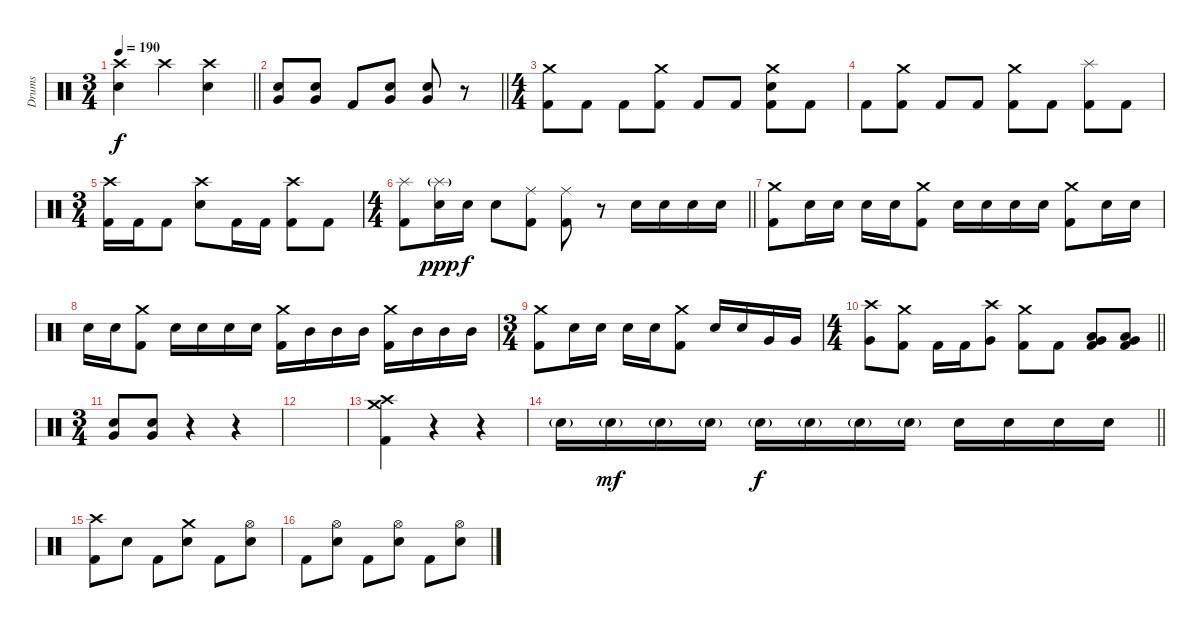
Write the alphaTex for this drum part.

\track ("Drums" "Drums") {instrument percussion}
\staff {score}
\articulation defaults
\ts (3 4)
\tempo 190
\clef neutral
\barLineRight lightlight
\ks c
("Crash high (hit)" "Electric Snare (hit)").4{dy f} "Crash high (hit)".4 ("Crash high (hit)" "Electric Snare (hit)").4 |
\barLineRight lightlight
("Electric Snare (hit)" "Very Low Tom (hit)").8 ("Electric Snare (hit)" "Very Low Tom (hit)").8 "Kick (hit) 2".8 ("Electric Snare (hit)" "Very Low Tom (hit)").8 ("Electric Snare (hit)" "Very Low Tom (hit)").8 r.8 |
\ts (4 4)
("Crash medium (hit)" "Kick (hit) 2").8 "Kick (hit) 2".8 "Kick (hit) 2".8 ("Crash medium (hit)" "Kick (hit) 2").8 "Kick (hit) 2".8 "Kick (hit) 2".8 ("Crash medium (hit)" "Electric Snare (hit)" "Kick (hit) 2").8 "Kick (hit) 2".8 |
"Kick (hit) 2".8 ("Crash medium (hit)" "Kick (hit) 2").8 "Kick (hit) 2".8 "Kick (hit) 2".8 ("Crash medium (hit)" "Kick (hit) 2").8 "Kick (hit) 2".8 ("Splash (hit)" "Kick (hit) 2").8 "Kick (hit) 2".8 |
\ts (3 4)
("Crash high (hit)" "Kick (hit) 2").16 "Kick (hit) 2".16 "Kick (hit) 2".8 ("Crash high (hit)" "Electric Snare (hit)").8 "Kick (hit) 2".16 "Kick (hit) 2".16 ("Crash high (hit)" "Kick (hit) 2").8 "Kick (hit) 2".8 |
\ts (4 4)
\barLineRight lightlight
("Splash (hit)" "Kick (hit) 2").8 ("Splash (hit)"{g} "Electric Snare (hit)").16{dy ppp} "Electric Snare (hit)".16{dy f} "Electric Snare (hit)".8 ("Ride (middle)" "Kick (hit) 2").8 ("Ride (middle)" "Kick (hit) 2").8 r.8 "Electric Snare (hit)".16 "Electric Snare (hit)".16 "Electric Snare (hit)".16 "Electric Snare (hit)".16 |
("Crash medium (hit)" "Kick (hit) 2").8 "Electric Snare (hit)".16 "Electric Snare (hit)".16 "Electric Snare (hit)".16 "Electric Snare (hit)".16 ("Crash medium (hit)" "Kick (hit) 2").8 "Electric Snare (hit)".16 "Electric Snare (hit)".16 "Electric Snare (hit)".16 "Electric Snare (hit)".16 ("Crash medium (hit)" "Kick (hit) 2").8 "Electric Snare (hit)".16 "Electric Snare (hit)".16 |
"Electric Snare (hit)".16 "Electric Snare (hit)".16 ("Crash medium (hit)" "Kick (hit) 2").8 "Electric Snare (hit)".16 "Electric Snare (hit)".16 "Electric Snare (hit)".16 "Electric Snare (hit)".16 ("Crash medium (hit)" "Kick (hit) 2").16 "Mid Tom (hit)".16 "Mid Tom (hit)".16 "Mid Tom (hit)".16 ("Crash medium (hit)" "Kick (hit) 2").16 "Mid Tom (hit)".16 "Mid Tom (hit)".16 "Mid Tom (hit)".16 |
\ts (3 4)
("Crash medium (hit)" "Kick (hit) 2").8 "Electric Snare (hit)".16 "Electric Snare (hit)".16 "Electric Snare (hit)".16 "Electric Snare (hit)".16 ("Crash medium (hit)" "Kick (hit) 2").8 "Electric Snare (hit)".16 "Electric Snare (hit)".16 "Very Low Tom (hit)".16 "Very Low Tom (hit)".16 |
\ts (4 4)
\barLineRight lightlight
("Crash high (hit)" "Very Low Tom (hit)").8 ("Crash medium (hit)" "Kick (hit) 2").8 "Kick (hit) 2".16 "Kick (hit) 2".16 ("Crash high (hit)" "Very Low Tom (hit)").8 ("Crash medium (hit)" "Kick (hit) 2").8 "Kick (hit) 2".8 ("Low Tom (hit)" "Very Low Tom (hit)" "Kick (hit) 2").8 ("Low Tom (hit)" "Very Low Tom (hit)" "Kick (hit) 2").8 |
\ts (3 4)
("Electric Snare (hit)" "Very Low Tom (hit)").8 ("Electric Snare (hit)" "Very Low Tom (hit)").8 r.4 r.4 |
|
("Crash high (hit)" "Crash medium (hit)" "Kick (hit) 2").4 r.4 r.4 |
\barLineRight lightlight "Electric Snare (hit)"{g}.16 "Electric Snare (hit)"{g}.16{dy mf} "Electric Snare (hit)"{g}.16 "Electric Snare (hit)"{g}.16 "Electric Snare (hit)"{g}.16{dy f} "Electric Snare (hit)"{g}.16 "Electric Snare (hit)"{g}.16 "Electric Snare (hit)"{g}.16 "Electric Snare (hit)".16 "Electric Snare (hit)".16 "Electric Snare (hit)".16 "Electric Snare (hit)".16
|
("Crash high (hit)" "Kick (hit) 2").8 "Electric Snare (hit)".8 "Kick (hit) 2".8 ("Crash medium (hit)" "Electric Snare (hit)").8 "Kick (hit) 2".8 ("Hi-Hat (open)" "Electric Snare (hit)").8 |
"Kick (hit) 2".8 ("Hi-Hat (open)" "Electric Snare (hit)").8 "Kick (hit) 2".8 ("Hi-Hat (open)" "Electric Snare (hit)").8 "Kick (hit) 2".8 ("Hi-Hat (open)" "Electric Snare (hit)").8
